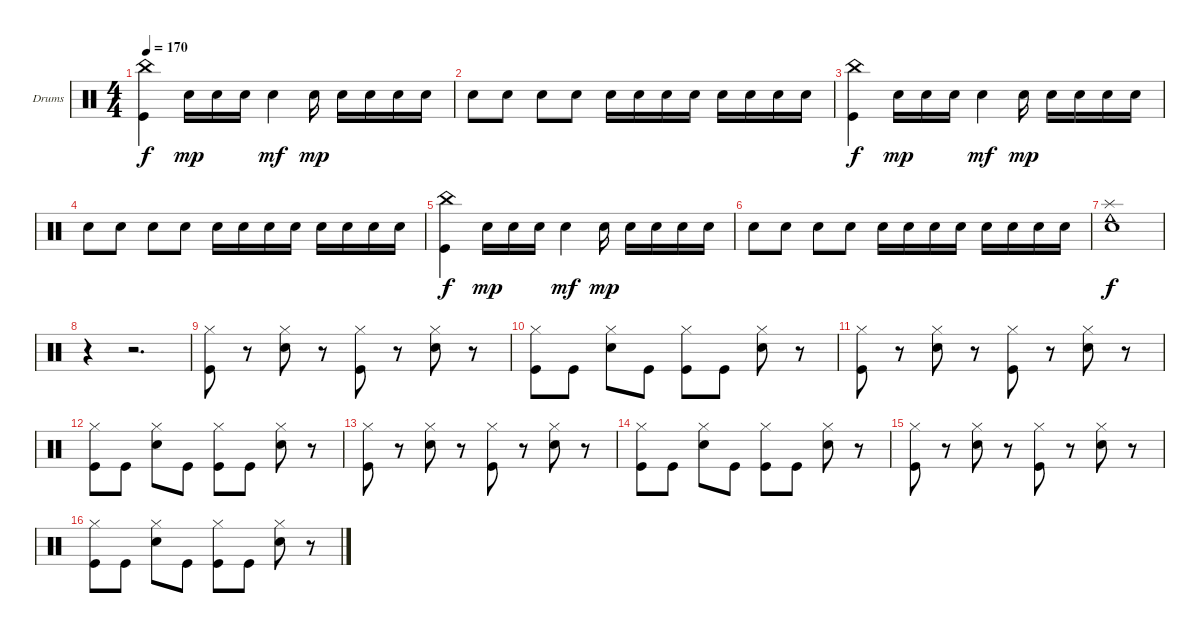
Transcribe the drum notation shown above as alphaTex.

\bracketExtendMode groupsimilarinstruments
\firstSystemTrackNameOrientation horizontal
\otherSystemsTrackNameOrientation horizontal
\track ("Drumkit" "Drums") {instrument percussion}
\staff {score}
\articulation defaults
\ts (4 4)
\tempo 170
\clef neutral
\ks c
("Kick (hit)" "China (hit)").4{dy f} "Snare (hit) 2".16{dy mp} "Snare (hit) 2".16 "Snare (hit) 2".16 "Snare (hit) 2".4{dy mf} "Snare (hit) 2".16{dy mp} "Snare (hit) 2".16 "Snare (hit) 2".16 "Snare (hit) 2".16 "Snare (hit) 2".16 |
"Snare (hit) 2".8 "Snare (hit) 2".8 "Snare (hit) 2".8 "Snare (hit) 2".8 "Snare (hit) 2".16 "Snare (hit) 2".16 "Snare (hit) 2".16 "Snare (hit) 2".16 "Snare (hit) 2".16 "Snare (hit) 2".16 "Snare (hit) 2".16 "Snare (hit) 2".16 |
("Kick (hit)" "China (hit)").4{dy f} "Snare (hit) 2".16{dy mp} "Snare (hit) 2".16 "Snare (hit) 2".16 "Snare (hit) 2".4{dy mf} "Snare (hit) 2".16{dy mp} "Snare (hit) 2".16 "Snare (hit) 2".16 "Snare (hit) 2".16 "Snare (hit) 2".16 |
"Snare (hit) 2".8 "Snare (hit) 2".8 "Snare (hit) 2".8 "Snare (hit) 2".8 "Snare (hit) 2".16 "Snare (hit) 2".16 "Snare (hit) 2".16 "Snare (hit) 2".16 "Snare (hit) 2".16 "Snare (hit) 2".16 "Snare (hit) 2".16 "Snare (hit) 2".16 |
("Kick (hit)" "China (hit)").4{dy f} "Snare (hit) 2".16{dy mp} "Snare (hit) 2".16 "Snare (hit) 2".16 "Snare (hit) 2".4{dy mf} "Snare (hit) 2".16{dy mp} "Snare (hit) 2".16 "Snare (hit) 2".16 "Snare (hit) 2".16 "Snare (hit) 2".16 |
"Snare (hit) 2".8 "Snare (hit) 2".8 "Snare (hit) 2".8 "Snare (hit) 2".8 "Snare (hit) 2".16 "Snare (hit) 2".16 "Snare (hit) 2".16 "Snare (hit) 2".16 "Snare (hit) 2".16 "Snare (hit) 2".16 "Snare (hit) 2".16 "Snare (hit) 2".16 |
("Snare (hit) 2" "Cowbell low (hit)" "Splash (hit)").1{dy f} |
r.4 r.2{d} |
("Hi-Hat (closed)" "Kick (hit)").8 r.8 ("Hi-Hat (closed)" "Snare (hit) 2").8 r.8 ("Hi-Hat (closed)" "Kick (hit)").8 r.8 ("Hi-Hat (closed)" "Snare (hit) 2").8 r.8 |
("Hi-Hat (closed)" "Kick (hit)").8 "Kick (hit)".8 ("Hi-Hat (closed)" "Snare (hit) 2").8 "Kick (hit)".8 ("Hi-Hat (closed)" "Kick (hit)").8 "Kick (hit)".8 ("Hi-Hat (closed)" "Snare (hit) 2").8 r.8 |
("Hi-Hat (closed)" "Kick (hit)").8 r.8 ("Hi-Hat (closed)" "Snare (hit) 2").8 r.8 ("Hi-Hat (closed)" "Kick (hit)").8 r.8 ("Hi-Hat (closed)" "Snare (hit) 2").8 r.8 |
("Hi-Hat (closed)" "Kick (hit)").8 "Kick (hit)".8 ("Hi-Hat (closed)" "Snare (hit) 2").8 "Kick (hit)".8 ("Hi-Hat (closed)" "Kick (hit)").8 "Kick (hit)".8 ("Hi-Hat (closed)" "Snare (hit) 2").8 r.8 |
("Hi-Hat (closed)" "Kick (hit)").8 r.8 ("Hi-Hat (closed)" "Snare (hit) 2").8 r.8 ("Hi-Hat (closed)" "Kick (hit)").8 r.8 ("Hi-Hat (closed)" "Snare (hit) 2").8 r.8 |
("Hi-Hat (closed)" "Kick (hit)").8 "Kick (hit)".8 ("Hi-Hat (closed)" "Snare (hit) 2").8 "Kick (hit)".8 ("Hi-Hat (closed)" "Kick (hit)").8 "Kick (hit)".8 ("Hi-Hat (closed)" "Snare (hit) 2").8 r.8 |
("Hi-Hat (closed)" "Kick (hit)").8 r.8 ("Hi-Hat (closed)" "Snare (hit) 2").8 r.8 ("Hi-Hat (closed)" "Kick (hit)").8 r.8 ("Hi-Hat (closed)" "Snare (hit) 2").8 r.8 |
("Hi-Hat (closed)" "Kick (hit)").8 "Kick (hit)".8 ("Hi-Hat (closed)" "Snare (hit) 2").8 "Kick (hit)".8 ("Hi-Hat (closed)" "Kick (hit)").8 "Kick (hit)".8 ("Hi-Hat (closed)" "Snare (hit) 2").8 r.8
